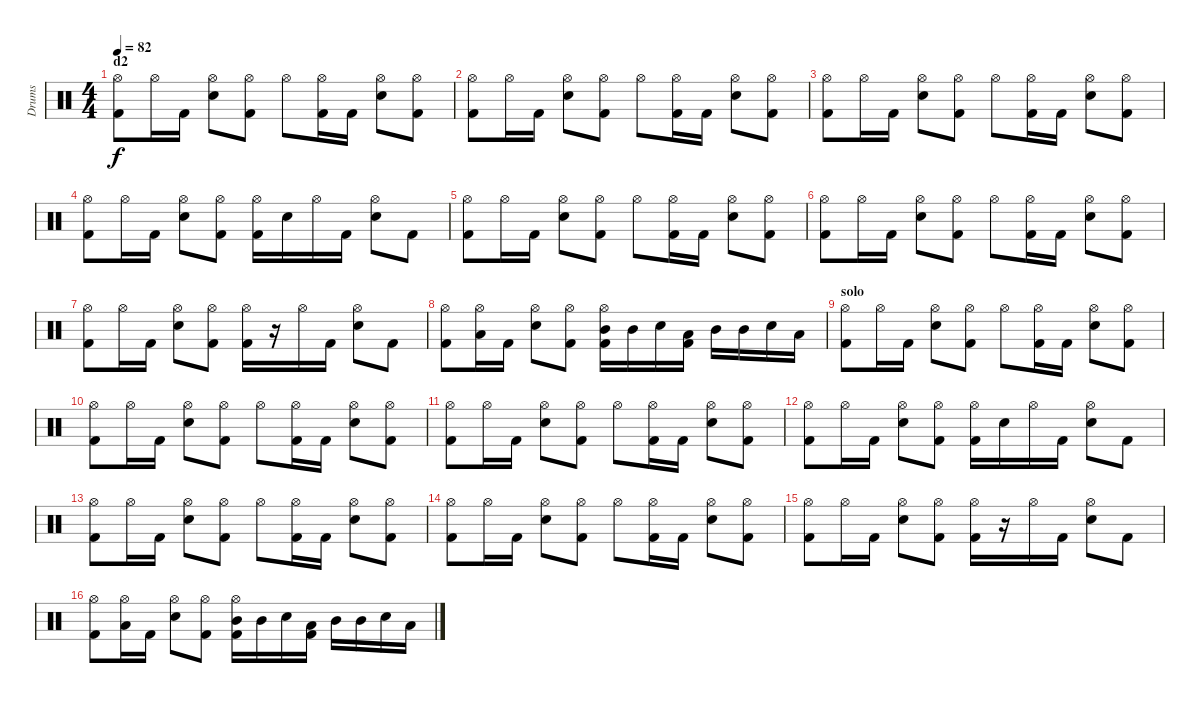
\track ("Drums" "Drums") {instrument percussion}
\staff {score}
\articulation defaults
\ts (4 4)
\section ("" "d2")
\tempo 82
\clef neutral
\ks c
("Hi-Hat (open)" "Kick (hit) 2").8{dy f} "Hi-Hat (open)".16 "Kick (hit) 2".16 ("Hi-Hat (open)" "Snare (hit) 2").8 ("Hi-Hat (open)" "Kick (hit) 2").8 "Hi-Hat (open)".8 ("Hi-Hat (open)" "Kick (hit) 2").16 "Kick (hit) 2".16 ("Hi-Hat (open)" "Snare (hit) 2").8 ("Hi-Hat (open)" "Kick (hit) 2").8 |
("Hi-Hat (open)" "Kick (hit) 2").8 "Hi-Hat (open)".16 "Kick (hit) 2".16 ("Hi-Hat (open)" "Snare (hit) 2").8 ("Hi-Hat (open)" "Kick (hit) 2").8 "Hi-Hat (open)".8 ("Hi-Hat (open)" "Kick (hit) 2").16 "Kick (hit) 2".16 ("Hi-Hat (open)" "Snare (hit) 2").8 ("Hi-Hat (open)" "Kick (hit) 2").8 |
("Hi-Hat (open)" "Kick (hit) 2").8 "Hi-Hat (open)".16 "Kick (hit) 2".16 ("Hi-Hat (open)" "Snare (hit) 2").8 ("Hi-Hat (open)" "Kick (hit) 2").8 "Hi-Hat (open)".8 ("Hi-Hat (open)" "Kick (hit) 2").16 "Kick (hit) 2".16 ("Hi-Hat (open)" "Snare (hit) 2").8 ("Hi-Hat (open)" "Kick (hit) 2").8 |
("Hi-Hat (open)" "Kick (hit) 2").8 "Hi-Hat (open)".16 "Kick (hit) 2".16 ("Hi-Hat (open)" "Snare (hit) 2").8 ("Hi-Hat (open)" "Kick (hit) 2").8 ("Hi-Hat (open)" "Kick (hit) 2").16 "Snare (hit) 2".16 "Hi-Hat (open)".16 "Kick (hit) 2".16 ("Hi-Hat (open)" "Snare (hit) 2").8 "Kick (hit) 2".8 |
("Hi-Hat (open)" "Kick (hit) 2").8 "Hi-Hat (open)".16 "Kick (hit) 2".16 ("Hi-Hat (open)" "Snare (hit) 2").8 ("Hi-Hat (open)" "Kick (hit) 2").8 "Hi-Hat (open)".8 ("Hi-Hat (open)" "Kick (hit) 2").16 "Kick (hit) 2".16 ("Hi-Hat (open)" "Snare (hit) 2").8 ("Hi-Hat (open)" "Kick (hit) 2").8 |
("Hi-Hat (open)" "Kick (hit) 2").8 "Hi-Hat (open)".16 "Kick (hit) 2".16 ("Hi-Hat (open)" "Snare (hit) 2").8 ("Hi-Hat (open)" "Kick (hit) 2").8 "Hi-Hat (open)".8 ("Hi-Hat (open)" "Kick (hit) 2").16 "Kick (hit) 2".16 ("Hi-Hat (open)" "Snare (hit) 2").8 ("Hi-Hat (open)" "Kick (hit) 2").8 |
("Hi-Hat (open)" "Kick (hit) 2").8 "Hi-Hat (open)".16 "Kick (hit) 2".16 ("Hi-Hat (open)" "Snare (hit) 2").8 ("Hi-Hat (open)" "Kick (hit) 2").8 ("Hi-Hat (open)" "Kick (hit) 2").16 r.16 "Hi-Hat (open)".16 "Kick (hit) 2".16 ("Hi-Hat (open)" "Snare (hit) 2").8 "Kick (hit) 2".8 |
("Hi-Hat (open)" "Kick (hit) 2").8 ("Hi-Hat (open)" "Low Tom (hit)").16 "Kick (hit) 2".16 ("Hi-Hat (open)" "Snare (hit) 2").8 ("Hi-Hat (open)" "Kick (hit) 2").8 ("Hi-Hat (open)" "Mid Tom (hit)" "Kick (hit) 2").16 "Mid Tom (hit)".16 "Snare (hit) 2".16 ("Low Tom (hit)" "Kick (hit) 2").16 "Mid Tom (hit)".16 "Mid Tom (hit)".16 "Snare (hit) 2".16 "Low Tom (hit)".16 |
\section ("" "solo")
("Hi-Hat (open)" "Kick (hit) 2").8 "Hi-Hat (open)".16 "Kick (hit) 2".16 ("Hi-Hat (open)" "Snare (hit) 2").8 ("Hi-Hat (open)" "Kick (hit) 2").8 "Hi-Hat (open)".8 ("Hi-Hat (open)" "Kick (hit) 2").16 "Kick (hit) 2".16 ("Hi-Hat (open)" "Snare (hit) 2").8 ("Hi-Hat (open)" "Kick (hit) 2").8 |
("Hi-Hat (open)" "Kick (hit) 2").8 "Hi-Hat (open)".16 "Kick (hit) 2".16 ("Hi-Hat (open)" "Snare (hit) 2").8 ("Hi-Hat (open)" "Kick (hit) 2").8 "Hi-Hat (open)".8 ("Hi-Hat (open)" "Kick (hit) 2").16 "Kick (hit) 2".16 ("Hi-Hat (open)" "Snare (hit) 2").8 ("Hi-Hat (open)" "Kick (hit) 2").8 |
("Hi-Hat (open)" "Kick (hit) 2").8 "Hi-Hat (open)".16 "Kick (hit) 2".16 ("Hi-Hat (open)" "Snare (hit) 2").8 ("Hi-Hat (open)" "Kick (hit) 2").8 "Hi-Hat (open)".8 ("Hi-Hat (open)" "Kick (hit) 2").16 "Kick (hit) 2".16 ("Hi-Hat (open)" "Snare (hit) 2").8 ("Hi-Hat (open)" "Kick (hit) 2").8 |
("Hi-Hat (open)" "Kick (hit) 2").8 "Hi-Hat (open)".16 "Kick (hit) 2".16 ("Hi-Hat (open)" "Snare (hit) 2").8 ("Hi-Hat (open)" "Kick (hit) 2").8 ("Hi-Hat (open)" "Kick (hit) 2").16 "Snare (hit) 2".16 "Hi-Hat (open)".16 "Kick (hit) 2".16 ("Hi-Hat (open)" "Snare (hit) 2").8 "Kick (hit) 2".8 |
("Hi-Hat (open)" "Kick (hit) 2").8 "Hi-Hat (open)".16 "Kick (hit) 2".16 ("Hi-Hat (open)" "Snare (hit) 2").8 ("Hi-Hat (open)" "Kick (hit) 2").8 "Hi-Hat (open)".8 ("Hi-Hat (open)" "Kick (hit) 2").16 "Kick (hit) 2".16 ("Hi-Hat (open)" "Snare (hit) 2").8 ("Hi-Hat (open)" "Kick (hit) 2").8 |
("Hi-Hat (open)" "Kick (hit) 2").8 "Hi-Hat (open)".16 "Kick (hit) 2".16 ("Hi-Hat (open)" "Snare (hit) 2").8 ("Hi-Hat (open)" "Kick (hit) 2").8 "Hi-Hat (open)".8 ("Hi-Hat (open)" "Kick (hit) 2").16 "Kick (hit) 2".16 ("Hi-Hat (open)" "Snare (hit) 2").8 ("Hi-Hat (open)" "Kick (hit) 2").8 |
("Hi-Hat (open)" "Kick (hit) 2").8 "Hi-Hat (open)".16 "Kick (hit) 2".16 ("Hi-Hat (open)" "Snare (hit) 2").8 ("Hi-Hat (open)" "Kick (hit) 2").8 ("Hi-Hat (open)" "Kick (hit) 2").16 r.16 "Hi-Hat (open)".16 "Kick (hit) 2".16 ("Hi-Hat (open)" "Snare (hit) 2").8 "Kick (hit) 2".8 |
("Hi-Hat (open)" "Kick (hit) 2").8 ("Hi-Hat (open)" "Low Tom (hit)").16 "Kick (hit) 2".16 ("Hi-Hat (open)" "Snare (hit) 2").8 ("Hi-Hat (open)" "Kick (hit) 2").8 ("Hi-Hat (open)" "Mid Tom (hit)" "Kick (hit) 2").16 "Mid Tom (hit)".16 "Snare (hit) 2".16 ("Low Tom (hit)" "Kick (hit) 2").16 "Mid Tom (hit)".16 "Mid Tom (hit)".16 "Snare (hit) 2".16 "Low Tom (hit)".16
